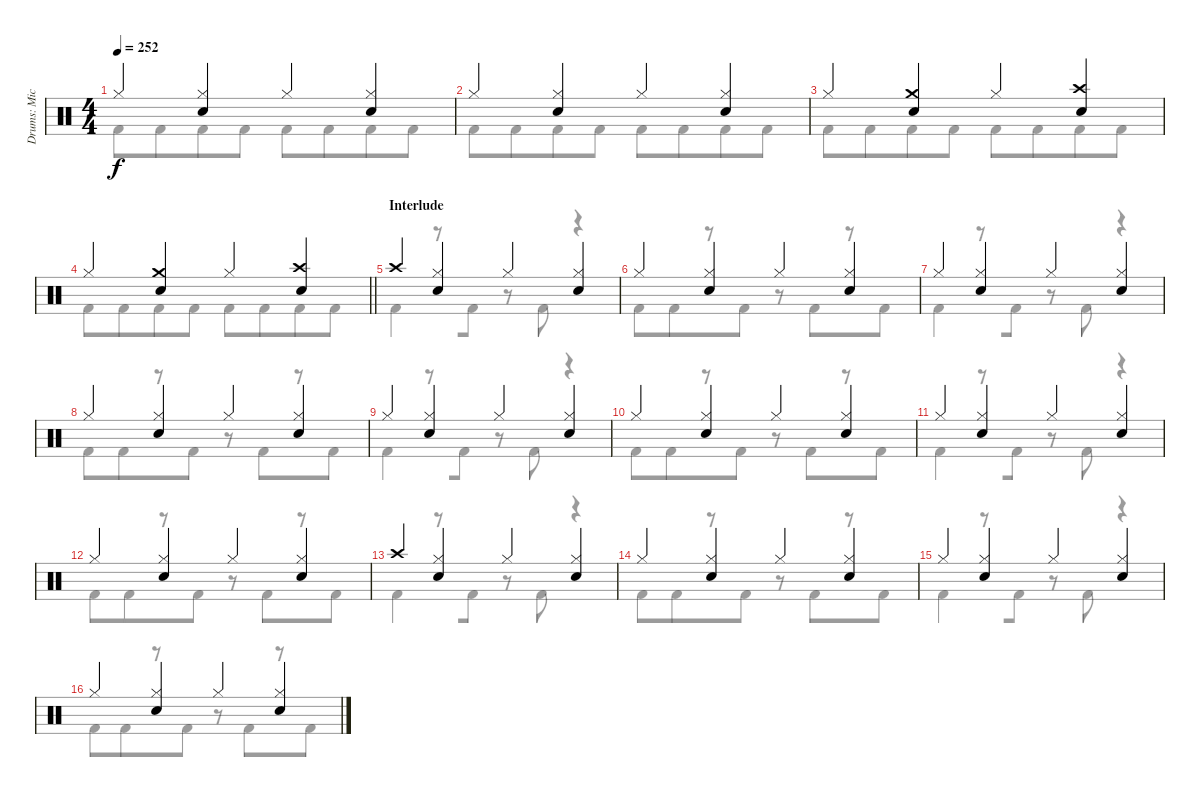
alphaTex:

\track ("Drums: Mick" "Drums: Mic") {instrument percussion}
\staff {score}
\articulation defaults
\voice
\ts (4 4)
\tempo 252
\clef neutral
\ks c "Hi-Hat (closed)".4{dy f}
("Hi-Hat (closed)" "Snare (hit) 2").4 "Hi-Hat (closed)".4 ("Hi-Hat (closed)" "Snare (hit) 2").4 |
"Hi-Hat (closed)".4 ("Hi-Hat (closed)" "Snare (hit) 2").4 "Hi-Hat (closed)".4 ("Hi-Hat (closed)" "Snare (hit) 2").4 |
"Hi-Hat (closed)".4 ("Crash medium (hit)" "Snare (hit) 2").4 "Hi-Hat (closed)".4 ("Crash high (hit)" "Snare (hit) 2").4 |
\barLineRight lightlight "Hi-Hat (closed)".4
("Crash medium (hit)" "Snare (hit) 2").4 "Hi-Hat (closed)".4 ("Crash high (hit)" "Snare (hit) 2").4 |
\section ("" "Interlude")
"Crash high (hit)".4 ("Hi-Hat (closed)" "Snare (hit) 2").4 "Hi-Hat (closed)".4 ("Hi-Hat (closed)" "Snare (hit) 2").4 |
"Hi-Hat (closed)".4 ("Hi-Hat (closed)" "Snare (hit) 2").4 "Hi-Hat (closed)".4 ("Hi-Hat (closed)" "Snare (hit) 2").4 |
"Hi-Hat (closed)".4 ("Hi-Hat (closed)" "Snare (hit) 2").4 "Hi-Hat (closed)".4 ("Hi-Hat (closed)" "Snare (hit) 2").4 |
"Hi-Hat (closed)".4 ("Hi-Hat (closed)" "Snare (hit) 2").4 "Hi-Hat (closed)".4 ("Hi-Hat (closed)" "Snare (hit) 2").4 |
"Hi-Hat (closed)".4 ("Hi-Hat (closed)" "Snare (hit) 2").4 "Hi-Hat (closed)".4 ("Hi-Hat (closed)" "Snare (hit) 2").4 |
"Hi-Hat (closed)".4 ("Hi-Hat (closed)" "Snare (hit) 2").4 "Hi-Hat (closed)".4 ("Hi-Hat (closed)" "Snare (hit) 2").4 |
"Hi-Hat (closed)".4 ("Hi-Hat (closed)" "Snare (hit) 2").4 "Hi-Hat (closed)".4 ("Hi-Hat (closed)" "Snare (hit) 2").4 |
"Hi-Hat (closed)".4 ("Hi-Hat (closed)" "Snare (hit) 2").4 "Hi-Hat (closed)".4 ("Hi-Hat (closed)" "Snare (hit) 2").4 |
"Crash high (hit)".4 ("Hi-Hat (closed)" "Snare (hit) 2").4 "Hi-Hat (closed)".4 ("Hi-Hat (closed)" "Snare (hit) 2").4 |
"Hi-Hat (closed)".4 ("Hi-Hat (closed)" "Snare (hit) 2").4 "Hi-Hat (closed)".4 ("Hi-Hat (closed)" "Snare (hit) 2").4 |
"Hi-Hat (closed)".4 ("Hi-Hat (closed)" "Snare (hit) 2").4 "Hi-Hat (closed)".4 ("Hi-Hat (closed)" "Snare (hit) 2").4 |
"Hi-Hat (closed)".4 ("Hi-Hat (closed)" "Snare (hit) 2").4 "Hi-Hat (closed)".4 ("Hi-Hat (closed)" "Snare (hit) 2").4
\voice
\clef neutral
\ottava regular
\simile none
\ks c "Kick (hit) 2".8{dy f} "Kick (hit) 2".8{beam merge} "Kick (hit) 2".8 "Kick (hit) 2".8 "Kick (hit) 2".8 "Kick (hit) 2".8{beam merge} "Kick (hit) 2".8 "Kick (hit) 2".8
|
"Kick (hit) 2".8 "Kick (hit) 2".8{beam merge} "Kick (hit) 2".8 "Kick (hit) 2".8 "Kick (hit) 2".8 "Kick (hit) 2".8{beam merge} "Kick (hit) 2".8 "Kick (hit) 2".8 |
"Kick (hit) 2".8 "Kick (hit) 2".8{beam merge} "Kick (hit) 2".8 "Kick (hit) 2".8 "Kick (hit) 2".8 "Kick (hit) 2".8{beam merge} "Kick (hit) 2".8 "Kick (hit) 2".8 |
\barLineRight lightlight "Kick (hit) 2".8 "Kick (hit) 2".8{beam merge} "Kick (hit) 2".8 "Kick (hit) 2".8 "Kick (hit) 2".8 "Kick (hit) 2".8{beam merge} "Kick (hit) 2".8 "Kick (hit) 2".8
|
"Kick (hit) 2".4{beam merge} r.8 "Kick (hit) 2".8 r.8 "Kick (hit) 2".8{beam merge} r.4 |
"Kick (hit) 2".8 "Kick (hit) 2".8{beam merge} r.8 "Kick (hit) 2".8 r.8 "Kick (hit) 2".8{beam merge} r.8 "Kick (hit) 2".8 |
"Kick (hit) 2".4{beam merge} r.8 "Kick (hit) 2".8 r.8 "Kick (hit) 2".8{beam merge} r.4 |
"Kick (hit) 2".8 "Kick (hit) 2".8{beam merge} r.8 "Kick (hit) 2".8 r.8 "Kick (hit) 2".8{beam merge} r.8 "Kick (hit) 2".8 |
"Kick (hit) 2".4{beam merge} r.8 "Kick (hit) 2".8 r.8 "Kick (hit) 2".8{beam merge} r.4 |
"Kick (hit) 2".8 "Kick (hit) 2".8{beam merge} r.8 "Kick (hit) 2".8 r.8 "Kick (hit) 2".8{beam merge} r.8 "Kick (hit) 2".8 |
"Kick (hit) 2".4{beam merge} r.8 "Kick (hit) 2".8 r.8 "Kick (hit) 2".8{beam merge} r.4 |
"Kick (hit) 2".8 "Kick (hit) 2".8{beam merge} r.8 "Kick (hit) 2".8 r.8 "Kick (hit) 2".8{beam merge} r.8 "Kick (hit) 2".8 |
"Kick (hit) 2".4{beam merge} r.8 "Kick (hit) 2".8 r.8 "Kick (hit) 2".8{beam merge} r.4 |
"Kick (hit) 2".8 "Kick (hit) 2".8{beam merge} r.8 "Kick (hit) 2".8 r.8 "Kick (hit) 2".8{beam merge} r.8 "Kick (hit) 2".8 |
"Kick (hit) 2".4{beam merge} r.8 "Kick (hit) 2".8 r.8 "Kick (hit) 2".8{beam merge} r.4 |
"Kick (hit) 2".8 "Kick (hit) 2".8{beam merge} r.8 "Kick (hit) 2".8 r.8 "Kick (hit) 2".8{beam merge} r.8 "Kick (hit) 2".8
